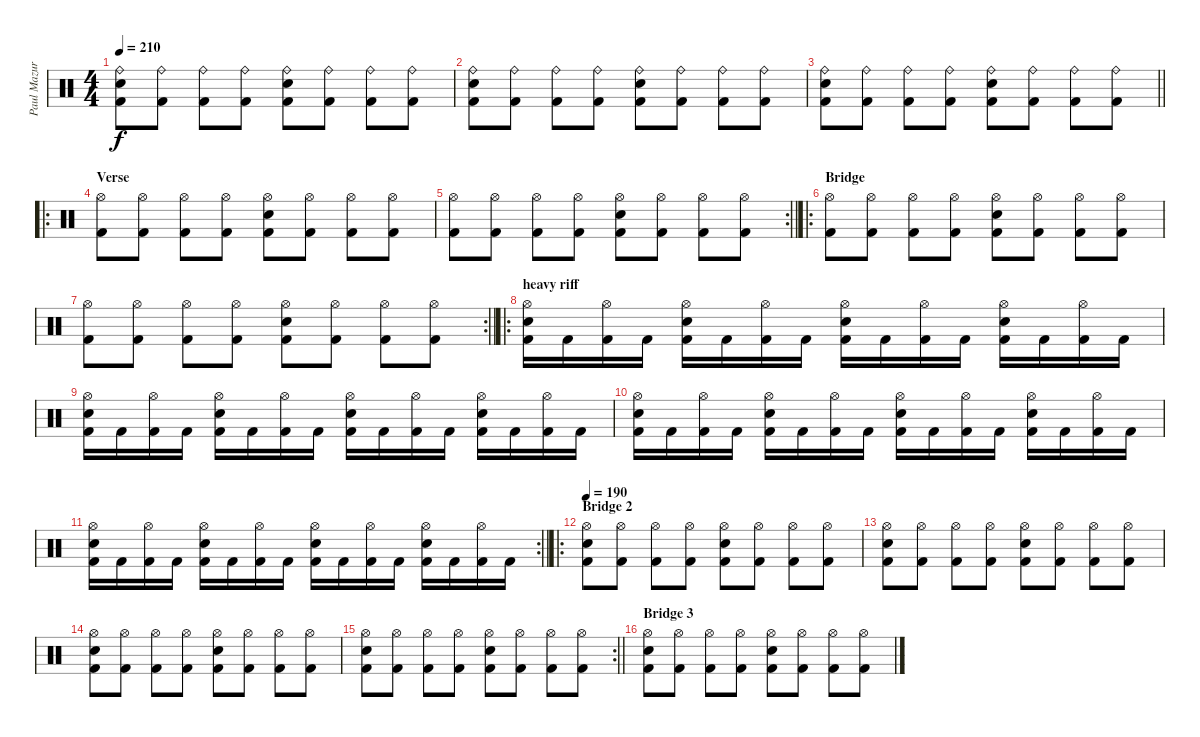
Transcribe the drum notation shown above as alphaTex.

\track ("Paul Mazurkiewicz" "Paul Mazur") {instrument percussion}
\staff {score}
\articulation defaults
\ts (4 4)
\tempo 210
\clef neutral
\ks c
("Ride (bell)" "Snare (hit) 2" "Kick (hit) 2").8{dy f} ("Ride (bell)" "Kick (hit) 2").8 ("Ride (bell)" "Kick (hit) 2").8 ("Ride (bell)" "Kick (hit) 2").8 ("Ride (bell)" "Snare (hit) 2" "Kick (hit) 2").8 ("Ride (bell)" "Kick (hit) 2").8 ("Ride (bell)" "Kick (hit) 2").8 ("Ride (bell)" "Kick (hit) 2").8 |
("Ride (bell)" "Snare (hit) 2" "Kick (hit) 2").8 ("Ride (bell)" "Kick (hit) 2").8 ("Ride (bell)" "Kick (hit) 2").8 ("Ride (bell)" "Kick (hit) 2").8 ("Ride (bell)" "Snare (hit) 2" "Kick (hit) 2").8 ("Ride (bell)" "Kick (hit) 2").8 ("Ride (bell)" "Kick (hit) 2").8 ("Ride (bell)" "Kick (hit) 2").8 |
\barLineRight lightlight
("Ride (bell)" "Snare (hit) 2" "Kick (hit) 2").8 ("Ride (bell)" "Kick (hit) 2").8 ("Ride (bell)" "Kick (hit) 2").8 ("Ride (bell)" "Kick (hit) 2").8 ("Ride (bell)" "Snare (hit) 2" "Kick (hit) 2").8 ("Ride (bell)" "Kick (hit) 2").8 ("Ride (bell)" "Kick (hit) 2").8 ("Ride (bell)" "Kick (hit) 2").8 |
\ro
\section ("" "Verse")
("Hi-Hat (open)" "Kick (hit) 2").8 ("Hi-Hat (open)" "Kick (hit) 2").8 ("Hi-Hat (open)" "Kick (hit) 2").8 ("Hi-Hat (open)" "Kick (hit) 2").8 ("Hi-Hat (open)" "Snare (hit) 2" "Kick (hit) 2").8 ("Hi-Hat (open)" "Kick (hit) 2").8 ("Hi-Hat (open)" "Kick (hit) 2").8 ("Hi-Hat (open)" "Kick (hit) 2").8 |
\rc 2
\barLineRight lightlight
("Hi-Hat (open)" "Kick (hit) 2").8 ("Hi-Hat (open)" "Kick (hit) 2").8 ("Hi-Hat (open)" "Kick (hit) 2").8 ("Hi-Hat (open)" "Kick (hit) 2").8 ("Hi-Hat (open)" "Snare (hit) 2" "Kick (hit) 2").8 ("Hi-Hat (open)" "Kick (hit) 2").8 ("Hi-Hat (open)" "Kick (hit) 2").8 ("Hi-Hat (open)" "Kick (hit) 2").8 |
\ro
\section ("" "Bridge")
("Hi-Hat (open)" "Kick (hit) 2").8 ("Hi-Hat (open)" "Kick (hit) 2").8 ("Hi-Hat (open)" "Kick (hit) 2").8 ("Hi-Hat (open)" "Kick (hit) 2").8 ("Hi-Hat (open)" "Snare (hit) 2" "Kick (hit) 2").8 ("Hi-Hat (open)" "Kick (hit) 2").8 ("Hi-Hat (open)" "Kick (hit) 2").8 ("Hi-Hat (open)" "Kick (hit) 2").8 |
\rc 2
\barLineRight lightlight
("Hi-Hat (open)" "Kick (hit) 2").8 ("Hi-Hat (open)" "Kick (hit) 2").8 ("Hi-Hat (open)" "Kick (hit) 2").8 ("Hi-Hat (open)" "Kick (hit) 2").8 ("Hi-Hat (open)" "Snare (hit) 2" "Kick (hit) 2").8 ("Hi-Hat (open)" "Kick (hit) 2").8 ("Hi-Hat (open)" "Kick (hit) 2").8 ("Hi-Hat (open)" "Kick (hit) 2").8 |
\ro
\section ("" "heavy riff")
("Hi-Hat (open)" "Snare (hit) 2" "Kick (hit) 2").16 "Kick (hit) 2".16 ("Hi-Hat (open)" "Kick (hit) 2").16 "Kick (hit) 2".16 ("Hi-Hat (open)" "Snare (hit) 2" "Kick (hit) 2").16 "Kick (hit) 2".16 ("Hi-Hat (open)" "Kick (hit) 2").16 "Kick (hit) 2".16 ("Hi-Hat (open)" "Snare (hit) 2" "Kick (hit) 2").16 "Kick (hit) 2".16 ("Hi-Hat (open)" "Kick (hit) 2").16 "Kick (hit) 2".16 ("Hi-Hat (open)" "Snare (hit) 2" "Kick (hit) 2").16 "Kick (hit) 2".16 ("Hi-Hat (open)" "Kick (hit) 2").16 "Kick (hit) 2".16 |
("Hi-Hat (open)" "Snare (hit) 2" "Kick (hit) 2").16 "Kick (hit) 2".16 ("Hi-Hat (open)" "Kick (hit) 2").16 "Kick (hit) 2".16 ("Hi-Hat (open)" "Snare (hit) 2" "Kick (hit) 2").16 "Kick (hit) 2".16 ("Hi-Hat (open)" "Kick (hit) 2").16 "Kick (hit) 2".16 ("Hi-Hat (open)" "Snare (hit) 2" "Kick (hit) 2").16 "Kick (hit) 2".16 ("Hi-Hat (open)" "Kick (hit) 2").16 "Kick (hit) 2".16 ("Hi-Hat (open)" "Snare (hit) 2" "Kick (hit) 2").16 "Kick (hit) 2".16 ("Hi-Hat (open)" "Kick (hit) 2").16 "Kick (hit) 2".16 |
("Hi-Hat (open)" "Snare (hit) 2" "Kick (hit) 2").16 "Kick (hit) 2".16 ("Hi-Hat (open)" "Kick (hit) 2").16 "Kick (hit) 2".16 ("Hi-Hat (open)" "Snare (hit) 2" "Kick (hit) 2").16 "Kick (hit) 2".16 ("Hi-Hat (open)" "Kick (hit) 2").16 "Kick (hit) 2".16 ("Hi-Hat (open)" "Snare (hit) 2" "Kick (hit) 2").16 "Kick (hit) 2".16 ("Hi-Hat (open)" "Kick (hit) 2").16 "Kick (hit) 2".16 ("Hi-Hat (open)" "Snare (hit) 2" "Kick (hit) 2").16 "Kick (hit) 2".16 ("Hi-Hat (open)" "Kick (hit) 2").16 "Kick (hit) 2".16 |
\rc 2
\barLineRight lightlight
("Hi-Hat (open)" "Snare (hit) 2" "Kick (hit) 2").16 "Kick (hit) 2".16 ("Hi-Hat (open)" "Kick (hit) 2").16 "Kick (hit) 2".16 ("Hi-Hat (open)" "Snare (hit) 2" "Kick (hit) 2").16 "Kick (hit) 2".16 ("Hi-Hat (open)" "Kick (hit) 2").16 "Kick (hit) 2".16 ("Hi-Hat (open)" "Snare (hit) 2" "Kick (hit) 2").16 "Kick (hit) 2".16 ("Hi-Hat (open)" "Kick (hit) 2").16 "Kick (hit) 2".16 ("Hi-Hat (open)" "Snare (hit) 2" "Kick (hit) 2").16 "Kick (hit) 2".16 ("Hi-Hat (open)" "Kick (hit) 2").16 "Kick (hit) 2".16 |
\ro
\section ("" "Bridge 2")
\tempo 120
\tempo 190
("Hi-Hat (open)" "Snare (hit) 2" "Kick (hit) 2").8 ("Hi-Hat (open)" "Kick (hit) 2").8 ("Hi-Hat (open)" "Kick (hit) 2").8 ("Hi-Hat (open)" "Kick (hit) 2").8 ("Hi-Hat (open)" "Snare (hit) 2" "Kick (hit) 2").8 ("Hi-Hat (open)" "Kick (hit) 2").8 ("Hi-Hat (open)" "Kick (hit) 2").8 ("Hi-Hat (open)" "Kick (hit) 2").8 |
("Hi-Hat (open)" "Snare (hit) 2" "Kick (hit) 2").8 ("Hi-Hat (open)" "Kick (hit) 2").8 ("Hi-Hat (open)" "Kick (hit) 2").8 ("Hi-Hat (open)" "Kick (hit) 2").8 ("Hi-Hat (open)" "Snare (hit) 2" "Kick (hit) 2").8 ("Hi-Hat (open)" "Kick (hit) 2").8 ("Hi-Hat (open)" "Kick (hit) 2").8 ("Hi-Hat (open)" "Kick (hit) 2").8 |
("Hi-Hat (open)" "Snare (hit) 2" "Kick (hit) 2").8 ("Hi-Hat (open)" "Kick (hit) 2").8 ("Hi-Hat (open)" "Kick (hit) 2").8 ("Hi-Hat (open)" "Kick (hit) 2").8 ("Hi-Hat (open)" "Snare (hit) 2" "Kick (hit) 2").8 ("Hi-Hat (open)" "Kick (hit) 2").8 ("Hi-Hat (open)" "Kick (hit) 2").8 ("Hi-Hat (open)" "Kick (hit) 2").8 |
\rc 2
\barLineRight lightlight
("Hi-Hat (open)" "Snare (hit) 2" "Kick (hit) 2").8 ("Hi-Hat (open)" "Kick (hit) 2").8 ("Hi-Hat (open)" "Kick (hit) 2").8 ("Hi-Hat (open)" "Kick (hit) 2").8 ("Hi-Hat (open)" "Snare (hit) 2" "Kick (hit) 2").8 ("Hi-Hat (open)" "Kick (hit) 2").8 ("Hi-Hat (open)" "Kick (hit) 2").8 ("Hi-Hat (open)" "Kick (hit) 2").8 |
\section ("" "Bridge 3")
("Hi-Hat (open)" "Snare (hit) 2" "Kick (hit) 2").8 ("Hi-Hat (open)" "Kick (hit) 2").8 ("Hi-Hat (open)" "Kick (hit) 2").8 ("Hi-Hat (open)" "Kick (hit) 2").8 ("Hi-Hat (open)" "Snare (hit) 2" "Kick (hit) 2").8 ("Hi-Hat (open)" "Kick (hit) 2").8 ("Hi-Hat (open)" "Kick (hit) 2").8 ("Hi-Hat (open)" "Kick (hit) 2").8
